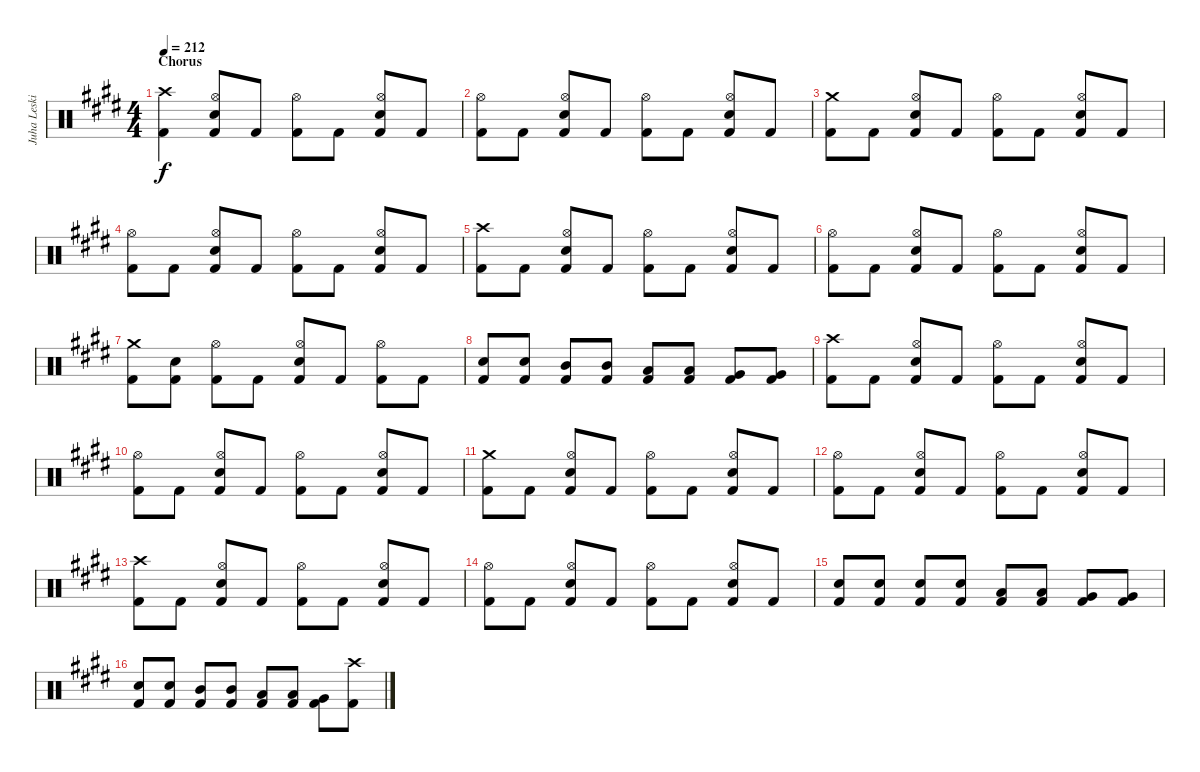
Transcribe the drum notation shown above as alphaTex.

\track ("Juha Leskinen - Drums" "Juha Leski") {instrument percussion}
\staff {score}
\articulation defaults
\ts (4 4)
\section ("" "Chorus")
\tempo 212
\clef neutral
\ks c#minor
("Crash high (hit)" "Kick (hit) 2").4{dy f} ("Hi-Hat (open)" "Electric Snare (hit)" "Kick (hit) 2").8 "Kick (hit) 2".8 ("Hi-Hat (open)" "Kick (hit) 2").8 "Kick (hit) 2".8 ("Hi-Hat (open)" "Electric Snare (hit)" "Kick (hit) 2").8 "Kick (hit) 2".8 |
("Hi-Hat (open)" "Kick (hit) 2").8 "Kick (hit) 2".8 ("Hi-Hat (open)" "Electric Snare (hit)" "Kick (hit) 2").8 "Kick (hit) 2".8 ("Hi-Hat (open)" "Kick (hit) 2").8 "Kick (hit) 2".8 ("Hi-Hat (open)" "Electric Snare (hit)" "Kick (hit) 2").8 "Kick (hit) 2".8 |
("Crash medium (hit)" "Kick (hit) 2").8 "Kick (hit) 2".8 ("Hi-Hat (open)" "Electric Snare (hit)" "Kick (hit) 2").8 "Kick (hit) 2".8 ("Hi-Hat (open)" "Kick (hit) 2").8 "Kick (hit) 2".8 ("Hi-Hat (open)" "Electric Snare (hit)" "Kick (hit) 2").8 "Kick (hit) 2".8 |
("Hi-Hat (open)" "Kick (hit) 2").8 "Kick (hit) 2".8 ("Hi-Hat (open)" "Electric Snare (hit)" "Kick (hit) 2").8 "Kick (hit) 2".8 ("Hi-Hat (open)" "Kick (hit) 2").8 "Kick (hit) 2".8 ("Hi-Hat (open)" "Electric Snare (hit)" "Kick (hit) 2").8 "Kick (hit) 2".8 |
("Crash high (hit)" "Kick (hit) 2").8 "Kick (hit) 2".8 ("Hi-Hat (open)" "Electric Snare (hit)" "Kick (hit) 2").8 "Kick (hit) 2".8 ("Hi-Hat (open)" "Kick (hit) 2").8 "Kick (hit) 2".8 ("Hi-Hat (open)" "Electric Snare (hit)" "Kick (hit) 2").8 "Kick (hit) 2".8 |
("Hi-Hat (open)" "Kick (hit) 2").8 "Kick (hit) 2".8 ("Hi-Hat (open)" "Electric Snare (hit)" "Kick (hit) 2").8 "Kick (hit) 2".8 ("Hi-Hat (open)" "Kick (hit) 2").8 "Kick (hit) 2".8 ("Hi-Hat (open)" "Electric Snare (hit)" "Kick (hit) 2").8 "Kick (hit) 2".8 |
("Crash medium (hit)" "Kick (hit) 2").8 ("Electric Snare (hit)" "Kick (hit) 2").8 ("Hi-Hat (open)" "Kick (hit) 2").8 "Kick (hit) 2".8 ("Hi-Hat (open)" "Electric Snare (hit)" "Kick (hit) 2").8 "Kick (hit) 2".8 ("Hi-Hat (open)" "Kick (hit) 2").8 "Kick (hit) 2".8 |
("Electric Snare (hit)" "Kick (hit) 2").8 ("Electric Snare (hit)" "Kick (hit) 2").8 ("Mid Tom (hit)" "Kick (hit) 2").8 ("Mid Tom (hit)" "Kick (hit) 2").8 ("Low Tom (hit)" "Kick (hit) 2").8 ("Low Tom (hit)" "Kick (hit) 2").8 ("Very Low Tom (hit)" "Kick (hit) 2").8 ("Very Low Tom (hit)" "Kick (hit) 2").8 |
("Crash high (hit)" "Kick (hit) 2").8 "Kick (hit) 2".8 ("Hi-Hat (open)" "Electric Snare (hit)" "Kick (hit) 2").8 "Kick (hit) 2".8 ("Hi-Hat (open)" "Kick (hit) 2").8 "Kick (hit) 2".8 ("Hi-Hat (open)" "Electric Snare (hit)" "Kick (hit) 2").8 "Kick (hit) 2".8 |
("Hi-Hat (open)" "Kick (hit) 2").8 "Kick (hit) 2".8 ("Hi-Hat (open)" "Electric Snare (hit)" "Kick (hit) 2").8 "Kick (hit) 2".8 ("Hi-Hat (open)" "Kick (hit) 2").8 "Kick (hit) 2".8 ("Hi-Hat (open)" "Electric Snare (hit)" "Kick (hit) 2").8 "Kick (hit) 2".8 |
("Crash medium (hit)" "Kick (hit) 2").8 "Kick (hit) 2".8 ("Hi-Hat (open)" "Electric Snare (hit)" "Kick (hit) 2").8 "Kick (hit) 2".8 ("Hi-Hat (open)" "Kick (hit) 2").8 "Kick (hit) 2".8 ("Hi-Hat (open)" "Electric Snare (hit)" "Kick (hit) 2").8 "Kick (hit) 2".8 |
("Hi-Hat (open)" "Kick (hit) 2").8 "Kick (hit) 2".8 ("Hi-Hat (open)" "Electric Snare (hit)" "Kick (hit) 2").8 "Kick (hit) 2".8 ("Hi-Hat (open)" "Kick (hit) 2").8 "Kick (hit) 2".8 ("Hi-Hat (open)" "Electric Snare (hit)" "Kick (hit) 2").8 "Kick (hit) 2".8 |
("Crash high (hit)" "Kick (hit) 2").8 "Kick (hit) 2".8 ("Hi-Hat (open)" "Electric Snare (hit)" "Kick (hit) 2").8 "Kick (hit) 2".8 ("Hi-Hat (open)" "Kick (hit) 2").8 "Kick (hit) 2".8 ("Hi-Hat (open)" "Electric Snare (hit)" "Kick (hit) 2").8 "Kick (hit) 2".8 |
("Hi-Hat (open)" "Kick (hit) 2").8 "Kick (hit) 2".8 ("Hi-Hat (open)" "Electric Snare (hit)" "Kick (hit) 2").8 "Kick (hit) 2".8 ("Hi-Hat (open)" "Kick (hit) 2").8 "Kick (hit) 2".8 ("Hi-Hat (open)" "Electric Snare (hit)" "Kick (hit) 2").8 "Kick (hit) 2".8 |
("Electric Snare (hit)" "Kick (hit) 2").8 ("Electric Snare (hit)" "Kick (hit) 2").8 ("Electric Snare (hit)" "Kick (hit) 2").8 ("Electric Snare (hit)" "Kick (hit) 2").8 ("Low Tom (hit)" "Kick (hit) 2").8 ("Low Tom (hit)" "Kick (hit) 2").8 ("Very Low Tom (hit)" "Kick (hit) 2").8 ("Very Low Tom (hit)" "Kick (hit) 2").8 |
("Electric Snare (hit)" "Kick (hit) 2").8 ("Electric Snare (hit)" "Kick (hit) 2").8 ("Mid Tom (hit)" "Kick (hit) 2").8 ("Mid Tom (hit)" "Kick (hit) 2").8 ("Low Tom (hit)" "Kick (hit) 2").8 ("Low Tom (hit)" "Kick (hit) 2").8 ("Very Low Tom (hit)" "Kick (hit) 2").8 ("Crash high (hit)" "Kick (hit) 2").8
